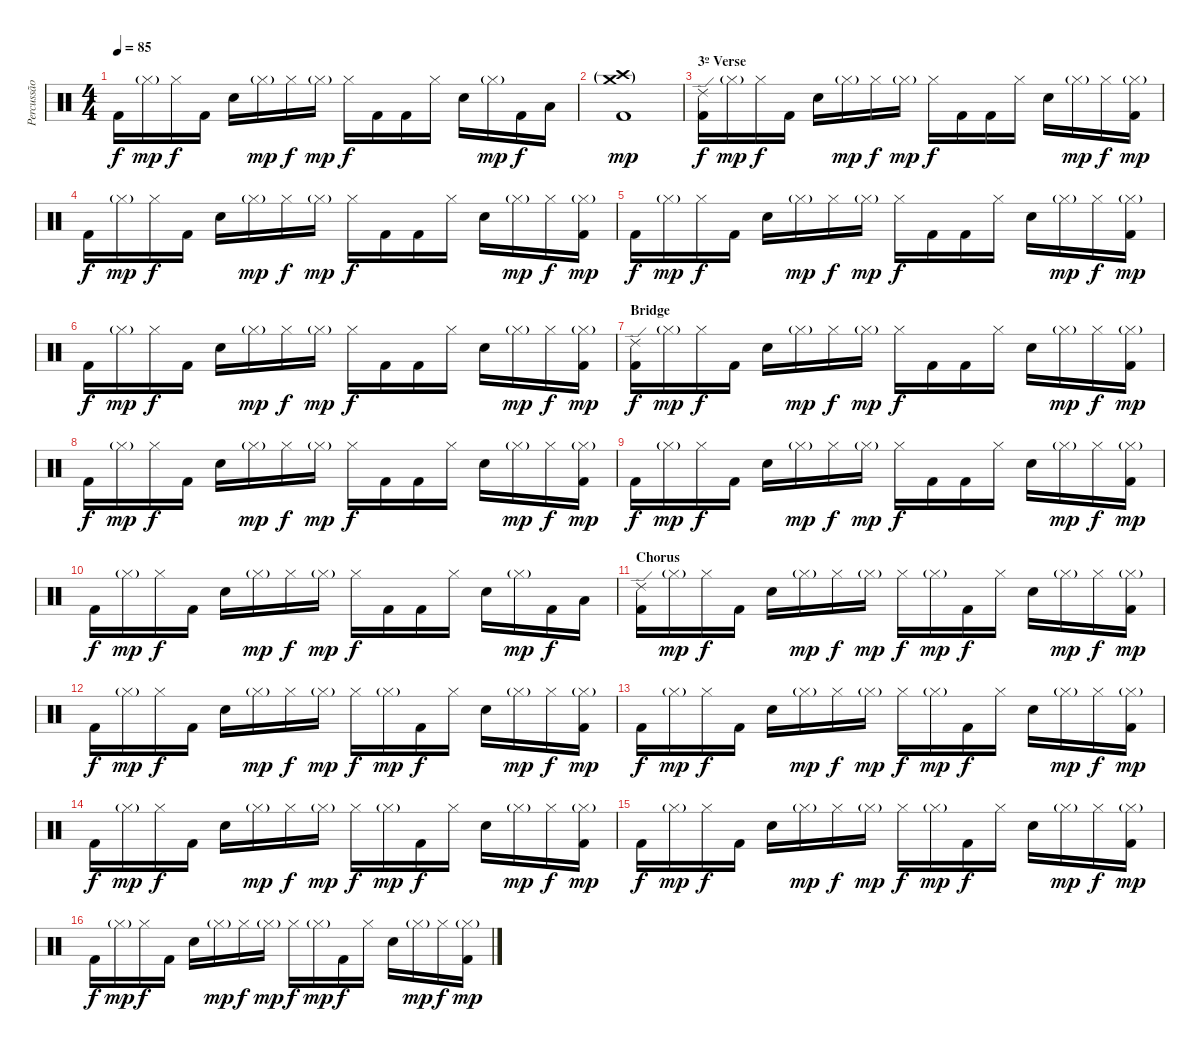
\track ("Percussão" "Percussão") {instrument percussion}
\staff {score}
\articulation defaults
\ts (4 4)
\tempo 85
\clef neutral
\ks c "Kick (hit) 2".16{dy f} "Hi-Hat (closed)"{g}.16{dy mp} "Hi-Hat (closed)".16{dy f} "Kick (hit) 2".16 "Electric Snare (hit)".16 "Hi-Hat (closed)"{g}.16{dy mp} "Hi-Hat (closed)".16{dy f} "Hi-Hat (closed)"{g}.16{dy mp} "Hi-Hat (closed)".16{dy f} "Kick (hit) 2".16 "Kick (hit) 2".16 "Hi-Hat (closed)".16 "Electric Snare (hit)".16 "Hi-Hat (closed)"{g}.16{dy mp} "Kick (hit) 2".16{dy f} "Low Tom (hit)".16
|
("Crash medium (hit)"{g} "Crash high (hit)"{g} "Kick (hit) 2").1{dy mp} |
\section ("" "3º Verse")
("Ride (edge) 2" "Kick (hit) 2").16{dy f} "Hi-Hat (closed)"{g}.16{dy mp} "Hi-Hat (closed)".16{dy f} "Kick (hit) 2".16 "Electric Snare (hit)".16 "Hi-Hat (closed)"{g}.16{dy mp} "Hi-Hat (closed)".16{dy f} "Hi-Hat (closed)"{g}.16{dy mp} "Hi-Hat (closed)".16{dy f} "Kick (hit) 2".16 "Kick (hit) 2".16 "Hi-Hat (closed)".16 "Electric Snare (hit)".16 "Hi-Hat (closed)"{g}.16{dy mp} "Hi-Hat (closed)".16{dy f} ("Hi-Hat (closed)"{g} "Kick (hit) 2").16{dy mp} |
"Kick (hit) 2".16{dy f} "Hi-Hat (closed)"{g}.16{dy mp} "Hi-Hat (closed)".16{dy f} "Kick (hit) 2".16 "Electric Snare (hit)".16 "Hi-Hat (closed)"{g}.16{dy mp} "Hi-Hat (closed)".16{dy f} "Hi-Hat (closed)"{g}.16{dy mp} "Hi-Hat (closed)".16{dy f} "Kick (hit) 2".16 "Kick (hit) 2".16 "Hi-Hat (closed)".16 "Electric Snare (hit)".16 "Hi-Hat (closed)"{g}.16{dy mp} "Hi-Hat (closed)".16{dy f} ("Hi-Hat (closed)"{g} "Kick (hit) 2").16{dy mp} |
"Kick (hit) 2".16{dy f} "Hi-Hat (closed)"{g}.16{dy mp} "Hi-Hat (closed)".16{dy f} "Kick (hit) 2".16 "Electric Snare (hit)".16 "Hi-Hat (closed)"{g}.16{dy mp} "Hi-Hat (closed)".16{dy f} "Hi-Hat (closed)"{g}.16{dy mp} "Hi-Hat (closed)".16{dy f} "Kick (hit) 2".16 "Kick (hit) 2".16 "Hi-Hat (closed)".16 "Electric Snare (hit)".16 "Hi-Hat (closed)"{g}.16{dy mp} "Hi-Hat (closed)".16{dy f} ("Hi-Hat (closed)"{g} "Kick (hit) 2").16{dy mp} |
"Kick (hit) 2".16{dy f} "Hi-Hat (closed)"{g}.16{dy mp} "Hi-Hat (closed)".16{dy f} "Kick (hit) 2".16 "Electric Snare (hit)".16 "Hi-Hat (closed)"{g}.16{dy mp} "Hi-Hat (closed)".16{dy f} "Hi-Hat (closed)"{g}.16{dy mp} "Hi-Hat (closed)".16{dy f} "Kick (hit) 2".16 "Kick (hit) 2".16 "Hi-Hat (closed)".16 "Electric Snare (hit)".16 "Hi-Hat (closed)"{g}.16{dy mp} "Hi-Hat (closed)".16{dy f} ("Hi-Hat (closed)"{g} "Kick (hit) 2").16{dy mp} |
\section ("" "Bridge")
("Ride (edge) 2" "Kick (hit) 2").16{dy f} "Hi-Hat (closed)"{g}.16{dy mp} "Hi-Hat (closed)".16{dy f} "Kick (hit) 2".16 "Electric Snare (hit)".16 "Hi-Hat (closed)"{g}.16{dy mp} "Hi-Hat (closed)".16{dy f} "Hi-Hat (closed)"{g}.16{dy mp} "Hi-Hat (closed)".16{dy f} "Kick (hit) 2".16 "Kick (hit) 2".16 "Hi-Hat (closed)".16 "Electric Snare (hit)".16 "Hi-Hat (closed)"{g}.16{dy mp} "Hi-Hat (closed)".16{dy f} ("Hi-Hat (closed)"{g} "Kick (hit) 2").16{dy mp} |
"Kick (hit) 2".16{dy f} "Hi-Hat (closed)"{g}.16{dy mp} "Hi-Hat (closed)".16{dy f} "Kick (hit) 2".16 "Electric Snare (hit)".16 "Hi-Hat (closed)"{g}.16{dy mp} "Hi-Hat (closed)".16{dy f} "Hi-Hat (closed)"{g}.16{dy mp} "Hi-Hat (closed)".16{dy f} "Kick (hit) 2".16 "Kick (hit) 2".16 "Hi-Hat (closed)".16 "Electric Snare (hit)".16 "Hi-Hat (closed)"{g}.16{dy mp} "Hi-Hat (closed)".16{dy f} ("Hi-Hat (closed)"{g} "Kick (hit) 2").16{dy mp} |
"Kick (hit) 2".16{dy f} "Hi-Hat (closed)"{g}.16{dy mp} "Hi-Hat (closed)".16{dy f} "Kick (hit) 2".16 "Electric Snare (hit)".16 "Hi-Hat (closed)"{g}.16{dy mp} "Hi-Hat (closed)".16{dy f} "Hi-Hat (closed)"{g}.16{dy mp} "Hi-Hat (closed)".16{dy f} "Kick (hit) 2".16 "Kick (hit) 2".16 "Hi-Hat (closed)".16 "Electric Snare (hit)".16 "Hi-Hat (closed)"{g}.16{dy mp} "Hi-Hat (closed)".16{dy f} ("Hi-Hat (closed)"{g} "Kick (hit) 2").16{dy mp} |
"Kick (hit) 2".16{dy f} "Hi-Hat (closed)"{g}.16{dy mp} "Hi-Hat (closed)".16{dy f} "Kick (hit) 2".16 "Electric Snare (hit)".16 "Hi-Hat (closed)"{g}.16{dy mp} "Hi-Hat (closed)".16{dy f} "Hi-Hat (closed)"{g}.16{dy mp} "Hi-Hat (closed)".16{dy f} "Kick (hit) 2".16 "Kick (hit) 2".16 "Hi-Hat (closed)".16 "Electric Snare (hit)".16 "Hi-Hat (closed)"{g}.16{dy mp} "Kick (hit) 2".16{dy f} "Low Tom (hit)".16 |
\section ("" "Chorus")
("Ride (edge) 2" "Kick (hit) 2").16 "Hi-Hat (closed)"{g}.16{dy mp} "Hi-Hat (closed)".16{dy f} "Kick (hit) 2".16 "Electric Snare (hit)".16 "Hi-Hat (closed)"{g}.16{dy mp} "Hi-Hat (closed)".16{dy f} "Hi-Hat (closed)"{g}.16{dy mp} "Hi-Hat (closed)".16{dy f} "Hi-Hat (closed)"{g}.16{dy mp} "Kick (hit) 2".16{dy f} "Hi-Hat (closed)".16 "Electric Snare (hit)".16 "Hi-Hat (closed)"{g}.16{dy mp} "Hi-Hat (closed)".16{dy f} ("Hi-Hat (closed)"{g} "Kick (hit) 2").16{dy mp} |
"Kick (hit) 2".16{dy f} "Hi-Hat (closed)"{g}.16{dy mp} "Hi-Hat (closed)".16{dy f} "Kick (hit) 2".16 "Electric Snare (hit)".16 "Hi-Hat (closed)"{g}.16{dy mp} "Hi-Hat (closed)".16{dy f} "Hi-Hat (closed)"{g}.16{dy mp} "Hi-Hat (closed)".16{dy f} "Hi-Hat (closed)"{g}.16{dy mp} "Kick (hit) 2".16{dy f} "Hi-Hat (closed)".16 "Electric Snare (hit)".16 "Hi-Hat (closed)"{g}.16{dy mp} "Hi-Hat (closed)".16{dy f} ("Hi-Hat (closed)"{g} "Kick (hit) 2").16{dy mp} |
"Kick (hit) 2".16{dy f} "Hi-Hat (closed)"{g}.16{dy mp} "Hi-Hat (closed)".16{dy f} "Kick (hit) 2".16 "Electric Snare (hit)".16 "Hi-Hat (closed)"{g}.16{dy mp} "Hi-Hat (closed)".16{dy f} "Hi-Hat (closed)"{g}.16{dy mp} "Hi-Hat (closed)".16{dy f} "Hi-Hat (closed)"{g}.16{dy mp} "Kick (hit) 2".16{dy f} "Hi-Hat (closed)".16 "Electric Snare (hit)".16 "Hi-Hat (closed)"{g}.16{dy mp} "Hi-Hat (closed)".16{dy f} ("Hi-Hat (closed)"{g} "Kick (hit) 2").16{dy mp} |
"Kick (hit) 2".16{dy f} "Hi-Hat (closed)"{g}.16{dy mp} "Hi-Hat (closed)".16{dy f} "Kick (hit) 2".16 "Electric Snare (hit)".16 "Hi-Hat (closed)"{g}.16{dy mp} "Hi-Hat (closed)".16{dy f} "Hi-Hat (closed)"{g}.16{dy mp} "Hi-Hat (closed)".16{dy f} "Hi-Hat (closed)"{g}.16{dy mp} "Kick (hit) 2".16{dy f} "Hi-Hat (closed)".16 "Electric Snare (hit)".16 "Hi-Hat (closed)"{g}.16{dy mp} "Hi-Hat (closed)".16{dy f} ("Hi-Hat (closed)"{g} "Kick (hit) 2").16{dy mp} |
"Kick (hit) 2".16{dy f} "Hi-Hat (closed)"{g}.16{dy mp} "Hi-Hat (closed)".16{dy f} "Kick (hit) 2".16 "Electric Snare (hit)".16 "Hi-Hat (closed)"{g}.16{dy mp} "Hi-Hat (closed)".16{dy f} "Hi-Hat (closed)"{g}.16{dy mp} "Hi-Hat (closed)".16{dy f} "Hi-Hat (closed)"{g}.16{dy mp} "Kick (hit) 2".16{dy f} "Hi-Hat (closed)".16 "Electric Snare (hit)".16 "Hi-Hat (closed)"{g}.16{dy mp} "Hi-Hat (closed)".16{dy f} ("Hi-Hat (closed)"{g} "Kick (hit) 2").16{dy mp} |
"Kick (hit) 2".16{dy f} "Hi-Hat (closed)"{g}.16{dy mp} "Hi-Hat (closed)".16{dy f} "Kick (hit) 2".16 "Electric Snare (hit)".16 "Hi-Hat (closed)"{g}.16{dy mp} "Hi-Hat (closed)".16{dy f} "Hi-Hat (closed)"{g}.16{dy mp} "Hi-Hat (closed)".16{dy f} "Hi-Hat (closed)"{g}.16{dy mp} "Kick (hit) 2".16{dy f} "Hi-Hat (closed)".16 "Electric Snare (hit)".16 "Hi-Hat (closed)"{g}.16{dy mp} "Hi-Hat (closed)".16{dy f} ("Hi-Hat (closed)"{g} "Kick (hit) 2").16{dy mp}
